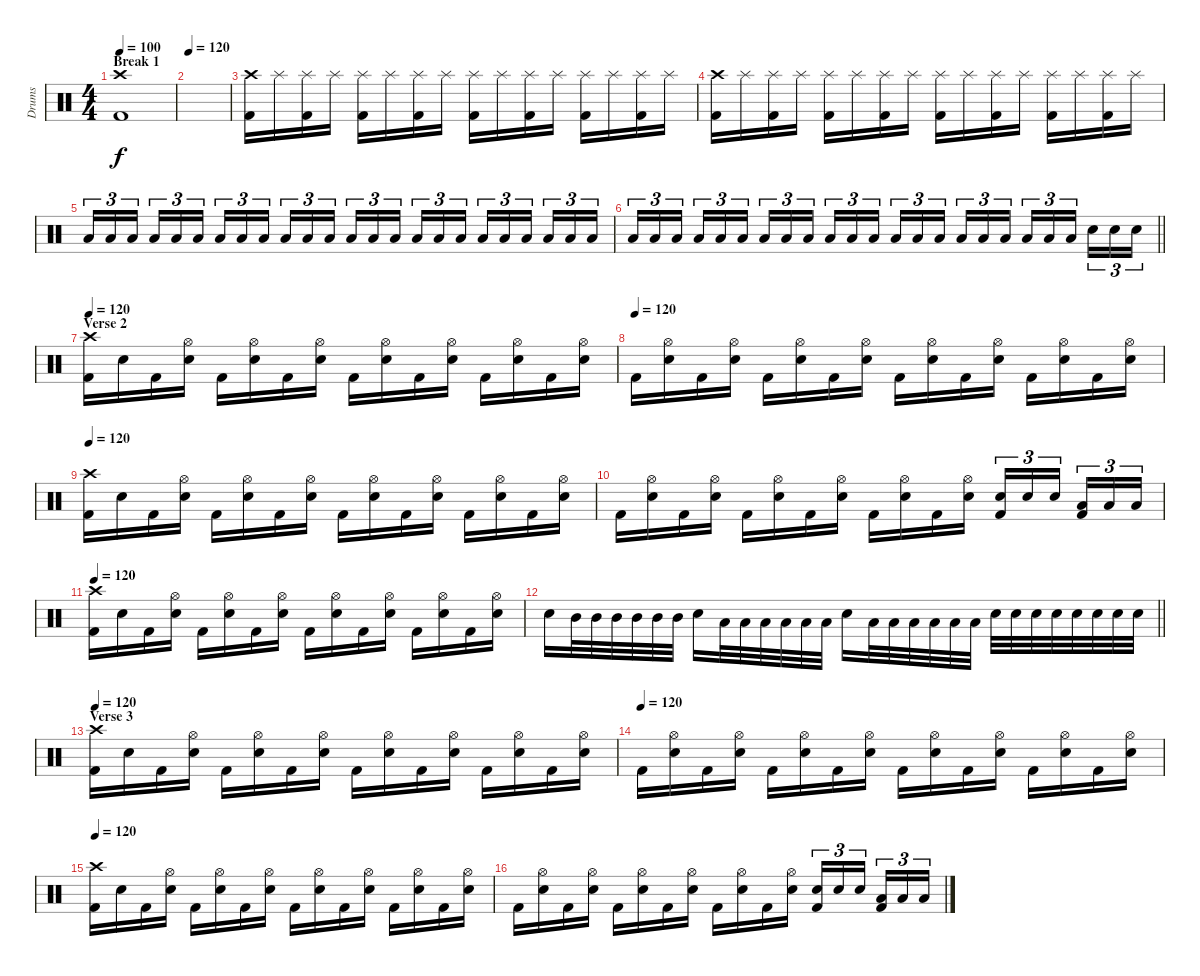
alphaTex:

\track ("Drums" "Drums") {instrument percussion}
\staff {score}
\articulation defaults
\ts (4 4)
\section ("" "Break 1")
\tempo 100
\clef neutral
\ks c
("Crash high (hit)" "Kick (hit) 2").1{dy f} |
\tempo 120
|
("Crash high (hit)" "Kick (hit) 2").16 "Splash (hit)".16 ("Splash (hit)" "Kick (hit) 2").16 "Splash (hit)".16 ("Splash (hit)" "Kick (hit) 2").16 "Splash (hit)".16 ("Splash (hit)" "Kick (hit) 2").16 "Splash (hit)".16 ("Splash (hit)" "Kick (hit) 2").16 "Splash (hit)".16 ("Splash (hit)" "Kick (hit) 2").16 "Splash (hit)".16 ("Splash (hit)" "Kick (hit) 2").16 "Splash (hit)".16 ("Splash (hit)" "Kick (hit) 2").16 "Splash (hit)".16 |
("Crash high (hit)" "Kick (hit) 2").16 "Splash (hit)".16 ("Splash (hit)" "Kick (hit) 2").16 "Splash (hit)".16 ("Splash (hit)" "Kick (hit) 2").16 "Splash (hit)".16 ("Splash (hit)" "Kick (hit) 2").16 "Splash (hit)".16 ("Splash (hit)" "Kick (hit) 2").16 "Splash (hit)".16 ("Splash (hit)" "Kick (hit) 2").16 "Splash (hit)".16 ("Splash (hit)" "Kick (hit) 2").16 "Splash (hit)".16 ("Splash (hit)" "Kick (hit) 2").16 "Splash (hit)".16 |
"Low Tom (hit)".16{tu (3 2)} "Low Tom (hit)".16{tu (3 2)} "Low Tom (hit)".16{tu (3 2) beam splitsecondary} "Low Floor Tom (hit)".16{tu (3 2)} "Low Floor Tom (hit)".16{tu (3 2)} "Low Floor Tom (hit)".16{tu (3 2)} "Low Tom (hit)".16{tu (3 2)} "Low Tom (hit)".16{tu (3 2)} "Low Tom (hit)".16{tu (3 2) beam splitsecondary} "Low Floor Tom (hit)".16{tu (3 2)} "Low Floor Tom (hit)".16{tu (3 2)} "Low Floor Tom (hit)".16{tu (3 2)} "Low Tom (hit)".16{tu (3 2)} "Low Tom (hit)".16{tu (3 2)} "Low Tom (hit)".16{tu (3 2) beam splitsecondary} "Low Floor Tom (hit)".16{tu (3 2)} "Low Floor Tom (hit)".16{tu (3 2)} "Low Floor Tom (hit)".16{tu (3 2)} "Low Tom (hit)".16{tu (3 2)} "Low Tom (hit)".16{tu (3 2)} "Low Tom (hit)".16{tu (3 2) beam splitsecondary} "Low Floor Tom (hit)".16{tu (3 2)} "Low Floor Tom (hit)".16{tu (3 2)} "Low Floor Tom (hit)".16{tu (3 2)} |
\barLineRight lightlight "Low Tom (hit)".16{tu (3 2)} "Low Tom (hit)".16{tu (3 2)} "Low Tom (hit)".16{tu (3 2) beam splitsecondary} "Low Floor Tom (hit)".16{tu (3 2)} "Low Floor Tom (hit)".16{tu (3 2)} "Low Floor Tom (hit)".16{tu (3 2)} "Low Tom (hit)".16{tu (3 2)} "Low Tom (hit)".16{tu (3 2)} "Low Tom (hit)".16{tu (3 2) beam splitsecondary} "Low Floor Tom (hit)".16{tu (3 2)} "Low Floor Tom (hit)".16{tu (3 2)} "Low Floor Tom (hit)".16{tu (3 2)} "Low Tom (hit)".16{tu (3 2)} "Low Tom (hit)".16{tu (3 2)} "Low Tom (hit)".16{tu (3 2) beam splitsecondary} "Low Floor Tom (hit)".16{tu (3 2)} "Low Floor Tom (hit)".16{tu (3 2)} "Low Floor Tom (hit)".16{tu (3 2)} "Low Tom (hit)".16{tu (3 2)} "Low Tom (hit)".16{tu (3 2)} "Low Tom (hit)".16{tu (3 2) beam splitsecondary} "Electric Snare (hit)".16{tu (3 2)} "Electric Snare (hit)".16{tu (3 2)} "Electric Snare (hit)".16{tu (3 2)}
|
\section ("" "Verse 2")
\tempo 120
("Crash high (hit)" "Kick (hit) 2").16 "Electric Snare (hit)".16 "Kick (hit) 2".16 ("Hi-Hat (open)" "Electric Snare (hit)").16 "Kick (hit) 2".16 ("Hi-Hat (open)" "Electric Snare (hit)").16 "Kick (hit) 2".16 ("Hi-Hat (open)" "Electric Snare (hit)").16 "Kick (hit) 2".16 ("Hi-Hat (open)" "Electric Snare (hit)").16 "Kick (hit) 2".16 ("Hi-Hat (open)" "Electric Snare (hit)").16 "Kick (hit) 2".16 ("Hi-Hat (open)" "Electric Snare (hit)").16 "Kick (hit) 2".16 ("Hi-Hat (open)" "Electric Snare (hit)").16 |
\tempo (120)
"Kick (hit) 2".16 ("Hi-Hat (open)" "Electric Snare (hit)").16 "Kick (hit) 2".16 ("Hi-Hat (open)" "Electric Snare (hit)").16 "Kick (hit) 2".16 ("Hi-Hat (open)" "Electric Snare (hit)").16 "Kick (hit) 2".16 ("Hi-Hat (open)" "Electric Snare (hit)").16 "Kick (hit) 2".16 ("Hi-Hat (open)" "Electric Snare (hit)").16 "Kick (hit) 2".16 ("Hi-Hat (open)" "Electric Snare (hit)").16 "Kick (hit) 2".16 ("Hi-Hat (open)" "Electric Snare (hit)").16 "Kick (hit) 2".16 ("Hi-Hat (open)" "Electric Snare (hit)").16 |
\tempo 120
("Crash high (hit)" "Kick (hit) 2").16 "Electric Snare (hit)".16 "Kick (hit) 2".16 ("Hi-Hat (open)" "Electric Snare (hit)").16 "Kick (hit) 2".16 ("Hi-Hat (open)" "Electric Snare (hit)").16 "Kick (hit) 2".16 ("Hi-Hat (open)" "Electric Snare (hit)").16 "Kick (hit) 2".16 ("Hi-Hat (open)" "Electric Snare (hit)").16 "Kick (hit) 2".16 ("Hi-Hat (open)" "Electric Snare (hit)").16 "Kick (hit) 2".16 ("Hi-Hat (open)" "Electric Snare (hit)").16 "Kick (hit) 2".16 ("Hi-Hat (open)" "Electric Snare (hit)").16 |
"Kick (hit) 2".16 ("Hi-Hat (open)" "Electric Snare (hit)").16 "Kick (hit) 2".16 ("Hi-Hat (open)" "Electric Snare (hit)").16 "Kick (hit) 2".16 ("Hi-Hat (open)" "Electric Snare (hit)").16 "Kick (hit) 2".16 ("Hi-Hat (open)" "Electric Snare (hit)").16 "Kick (hit) 2".16 ("Hi-Hat (open)" "Electric Snare (hit)").16 "Kick (hit) 2".16 ("Hi-Hat (open)" "Electric Snare (hit)").16 ("Electric Snare (hit)" "Kick (hit) 2").16{tu (3 2)} "Electric Snare (hit)".16{tu (3 2)} "Electric Snare (hit)".16{tu (3 2) beam splitsecondary} ("Low Tom (hit)" "Kick (hit) 2").16{tu (3 2)} "Low Tom (hit)".16{tu (3 2)} "Low Tom (hit)".16{tu (3 2)} |
\tempo 120
("Crash high (hit)" "Kick (hit) 2").16 "Electric Snare (hit)".16 "Kick (hit) 2".16 ("Hi-Hat (open)" "Electric Snare (hit)").16 "Kick (hit) 2".16 ("Hi-Hat (open)" "Electric Snare (hit)").16 "Kick (hit) 2".16 ("Hi-Hat (open)" "Electric Snare (hit)").16 "Kick (hit) 2".16 ("Hi-Hat (open)" "Electric Snare (hit)").16 "Kick (hit) 2".16 ("Hi-Hat (open)" "Electric Snare (hit)").16 "Kick (hit) 2".16 ("Hi-Hat (open)" "Electric Snare (hit)").16 "Kick (hit) 2".16 ("Hi-Hat (open)" "Electric Snare (hit)").16 |
\barLineRight lightlight "Electric Snare (hit)".16 "Mid Tom (hit)".32 "Mid Tom (hit)".32 "Mid Tom (hit)".32 "Mid Tom (hit)".32 "Mid Tom (hit)".32 "Mid Tom (hit)".32 "Electric Snare (hit)".16 "Low Tom (hit)".32 "Low Tom (hit)".32 "Low Tom (hit)".32 "Low Tom (hit)".32 "Low Tom (hit)".32 "Low Tom (hit)".32 "Electric Snare (hit)".16 "Low Floor Tom (hit)".32 "Low Floor Tom (hit)".32 "Low Floor Tom (hit)".32 "Low Floor Tom (hit)".32 "Low Floor Tom (hit)".32 "Low Floor Tom (hit)".32 "Electric Snare (hit)".32 "Electric Snare (hit)".32 "Electric Snare (hit)".32 "Electric Snare (hit)".32 "Electric Snare (hit)".32 "Electric Snare (hit)".32 "Electric Snare (hit)".32 "Electric Snare (hit)".32
|
\section ("" "Verse 3")
\tempo 120
("Crash high (hit)" "Kick (hit) 2").16 "Electric Snare (hit)".16 "Kick (hit) 2".16 ("Hi-Hat (open)" "Electric Snare (hit)").16 "Kick (hit) 2".16 ("Hi-Hat (open)" "Electric Snare (hit)").16 "Kick (hit) 2".16 ("Hi-Hat (open)" "Electric Snare (hit)").16 "Kick (hit) 2".16 ("Hi-Hat (open)" "Electric Snare (hit)").16 "Kick (hit) 2".16 ("Hi-Hat (open)" "Electric Snare (hit)").16 "Kick (hit) 2".16 ("Hi-Hat (open)" "Electric Snare (hit)").16 "Kick (hit) 2".16 ("Hi-Hat (open)" "Electric Snare (hit)").16 |
\tempo (120)
"Kick (hit) 2".16 ("Hi-Hat (open)" "Electric Snare (hit)").16 "Kick (hit) 2".16 ("Hi-Hat (open)" "Electric Snare (hit)").16 "Kick (hit) 2".16 ("Hi-Hat (open)" "Electric Snare (hit)").16 "Kick (hit) 2".16 ("Hi-Hat (open)" "Electric Snare (hit)").16 "Kick (hit) 2".16 ("Hi-Hat (open)" "Electric Snare (hit)").16 "Kick (hit) 2".16 ("Hi-Hat (open)" "Electric Snare (hit)").16 "Kick (hit) 2".16 ("Hi-Hat (open)" "Electric Snare (hit)").16 "Kick (hit) 2".16 ("Hi-Hat (open)" "Electric Snare (hit)").16 |
\tempo 120
("Crash high (hit)" "Kick (hit) 2").16 "Electric Snare (hit)".16 "Kick (hit) 2".16 ("Hi-Hat (open)" "Electric Snare (hit)").16 "Kick (hit) 2".16 ("Hi-Hat (open)" "Electric Snare (hit)").16 "Kick (hit) 2".16 ("Hi-Hat (open)" "Electric Snare (hit)").16 "Kick (hit) 2".16 ("Hi-Hat (open)" "Electric Snare (hit)").16 "Kick (hit) 2".16 ("Hi-Hat (open)" "Electric Snare (hit)").16 "Kick (hit) 2".16 ("Hi-Hat (open)" "Electric Snare (hit)").16 "Kick (hit) 2".16 ("Hi-Hat (open)" "Electric Snare (hit)").16 |
"Kick (hit) 2".16 ("Hi-Hat (open)" "Electric Snare (hit)").16 "Kick (hit) 2".16 ("Hi-Hat (open)" "Electric Snare (hit)").16 "Kick (hit) 2".16 ("Hi-Hat (open)" "Electric Snare (hit)").16 "Kick (hit) 2".16 ("Hi-Hat (open)" "Electric Snare (hit)").16 "Kick (hit) 2".16 ("Hi-Hat (open)" "Electric Snare (hit)").16 "Kick (hit) 2".16 ("Hi-Hat (open)" "Electric Snare (hit)").16 ("Electric Snare (hit)" "Kick (hit) 2").16{tu (3 2)} "Electric Snare (hit)".16{tu (3 2)} "Electric Snare (hit)".16{tu (3 2) beam splitsecondary} ("Low Tom (hit)" "Kick (hit) 2").16{tu (3 2)} "Low Tom (hit)".16{tu (3 2)} "Low Tom (hit)".16{tu (3 2)}
